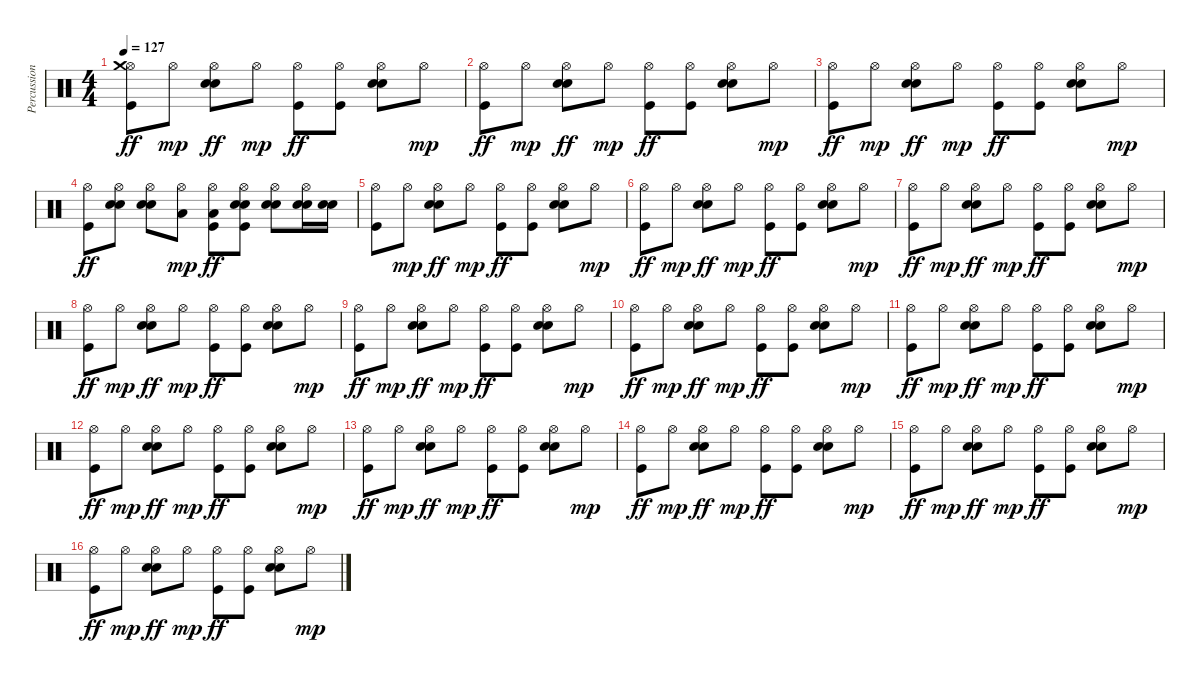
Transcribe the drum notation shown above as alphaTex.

\track ("Percussions" "Percussion") {instrument percussion}
\staff {score}
\articulation defaults
\ts (4 4)
\tempo 127
\clef neutral
\ks c
("Hi-Hat (open)" "Crash medium (hit)" "Kick (hit)").8{dy ff} "Hi-Hat (open)".8{dy mp} ("Hi-Hat (open)" "Snare (hit) 2" "Electric Snare (hit)").8{dy ff} "Hi-Hat (open)".8{dy mp} ("Hi-Hat (open)" "Kick (hit)").8{dy ff} ("Hi-Hat (open)" "Kick (hit)").8 ("Hi-Hat (open)" "Snare (hit) 2" "Electric Snare (hit)").8 "Hi-Hat (open)".8{dy mp} |
("Hi-Hat (open)" "Kick (hit)").8{dy ff} "Hi-Hat (open)".8{dy mp} ("Hi-Hat (open)" "Snare (hit) 2" "Electric Snare (hit)").8{dy ff} "Hi-Hat (open)".8{dy mp} ("Hi-Hat (open)" "Kick (hit)").8{dy ff} ("Hi-Hat (open)" "Kick (hit)").8 ("Hi-Hat (open)" "Snare (hit) 2" "Electric Snare (hit)").8 "Hi-Hat (open)".8{dy mp} |
("Hi-Hat (open)" "Kick (hit)").8{dy ff} "Hi-Hat (open)".8{dy mp} ("Hi-Hat (open)" "Snare (hit) 2" "Electric Snare (hit)").8{dy ff} "Hi-Hat (open)".8{dy mp} ("Hi-Hat (open)" "Kick (hit)").8{dy ff} ("Hi-Hat (open)" "Kick (hit)").8 ("Hi-Hat (open)" "Snare (hit) 2" "Electric Snare (hit)").8 "Hi-Hat (open)".8{dy mp} |
("Hi-Hat (open)" "Kick (hit)").8{dy ff} ("Hi-Hat (open)" "Snare (hit) 2" "Electric Snare (hit)").8 ("Hi-Hat (open)" "Snare (hit) 2" "Electric Snare (hit)").8 ("Hi-Hat (open)" "Low Floor Tom (hit)").8{dy mp} ("Hi-Hat (open)" "Low Floor Tom (hit)" "Kick (hit)").8{dy ff} ("Hi-Hat (open)" "Snare (hit) 2" "Electric Snare (hit)" "Kick (hit)").8 ("Hi-Hat (open)" "Snare (hit) 2" "Electric Snare (hit)").8 ("Hi-Hat (open)" "Snare (hit) 2" "Electric Snare (hit)").16 ("Snare (hit) 2" "Electric Snare (hit)").16 |
("Hi-Hat (open)" "Kick (hit)").8 "Hi-Hat (open)".8{dy mp} ("Hi-Hat (open)" "Snare (hit) 2" "Electric Snare (hit)").8{dy ff} "Hi-Hat (open)".8{dy mp} ("Hi-Hat (open)" "Kick (hit)").8{dy ff} ("Hi-Hat (open)" "Kick (hit)").8 ("Hi-Hat (open)" "Snare (hit) 2" "Electric Snare (hit)").8 "Hi-Hat (open)".8{dy mp} |
("Hi-Hat (open)" "Kick (hit)").8{dy ff} "Hi-Hat (open)".8{dy mp} ("Hi-Hat (open)" "Snare (hit) 2" "Electric Snare (hit)").8{dy ff} "Hi-Hat (open)".8{dy mp} ("Hi-Hat (open)" "Kick (hit)").8{dy ff} ("Hi-Hat (open)" "Kick (hit)").8 ("Hi-Hat (open)" "Snare (hit) 2" "Electric Snare (hit)").8 "Hi-Hat (open)".8{dy mp} |
("Hi-Hat (open)" "Kick (hit)").8{dy ff} "Hi-Hat (open)".8{dy mp} ("Hi-Hat (open)" "Snare (hit) 2" "Electric Snare (hit)").8{dy ff} "Hi-Hat (open)".8{dy mp} ("Hi-Hat (open)" "Kick (hit)").8{dy ff} ("Hi-Hat (open)" "Kick (hit)").8 ("Hi-Hat (open)" "Snare (hit) 2" "Electric Snare (hit)").8 "Hi-Hat (open)".8{dy mp} |
("Hi-Hat (open)" "Kick (hit)").8{dy ff} "Hi-Hat (open)".8{dy mp} ("Hi-Hat (open)" "Snare (hit) 2" "Electric Snare (hit)").8{dy ff} "Hi-Hat (open)".8{dy mp} ("Hi-Hat (open)" "Kick (hit)").8{dy ff} ("Hi-Hat (open)" "Kick (hit)").8 ("Hi-Hat (open)" "Snare (hit) 2" "Electric Snare (hit)").8 "Hi-Hat (open)".8{dy mp} |
("Hi-Hat (open)" "Kick (hit)").8{dy ff} "Hi-Hat (open)".8{dy mp} ("Hi-Hat (open)" "Snare (hit) 2" "Electric Snare (hit)").8{dy ff} "Hi-Hat (open)".8{dy mp} ("Hi-Hat (open)" "Kick (hit)").8{dy ff} ("Hi-Hat (open)" "Kick (hit)").8 ("Hi-Hat (open)" "Snare (hit) 2" "Electric Snare (hit)").8 "Hi-Hat (open)".8{dy mp} |
("Hi-Hat (open)" "Kick (hit)").8{dy ff} "Hi-Hat (open)".8{dy mp} ("Hi-Hat (open)" "Snare (hit) 2" "Electric Snare (hit)").8{dy ff} "Hi-Hat (open)".8{dy mp} ("Hi-Hat (open)" "Kick (hit)").8{dy ff} ("Hi-Hat (open)" "Kick (hit)").8 ("Hi-Hat (open)" "Snare (hit) 2" "Electric Snare (hit)").8 "Hi-Hat (open)".8{dy mp} |
("Hi-Hat (open)" "Kick (hit)").8{dy ff} "Hi-Hat (open)".8{dy mp} ("Hi-Hat (open)" "Snare (hit) 2" "Electric Snare (hit)").8{dy ff} "Hi-Hat (open)".8{dy mp} ("Hi-Hat (open)" "Kick (hit)").8{dy ff} ("Hi-Hat (open)" "Kick (hit)").8 ("Hi-Hat (open)" "Snare (hit) 2" "Electric Snare (hit)").8 "Hi-Hat (open)".8{dy mp} |
("Hi-Hat (open)" "Kick (hit)").8{dy ff} "Hi-Hat (open)".8{dy mp} ("Hi-Hat (open)" "Snare (hit) 2" "Electric Snare (hit)").8{dy ff} "Hi-Hat (open)".8{dy mp} ("Hi-Hat (open)" "Kick (hit)").8{dy ff} ("Hi-Hat (open)" "Kick (hit)").8 ("Hi-Hat (open)" "Snare (hit) 2" "Electric Snare (hit)").8 "Hi-Hat (open)".8{dy mp} |
("Hi-Hat (open)" "Kick (hit)").8{dy ff} "Hi-Hat (open)".8{dy mp} ("Hi-Hat (open)" "Snare (hit) 2" "Electric Snare (hit)").8{dy ff} "Hi-Hat (open)".8{dy mp} ("Hi-Hat (open)" "Kick (hit)").8{dy ff} ("Hi-Hat (open)" "Kick (hit)").8 ("Hi-Hat (open)" "Snare (hit) 2" "Electric Snare (hit)").8 "Hi-Hat (open)".8{dy mp} |
("Hi-Hat (open)" "Kick (hit)").8{dy ff} "Hi-Hat (open)".8{dy mp} ("Hi-Hat (open)" "Snare (hit) 2" "Electric Snare (hit)").8{dy ff} "Hi-Hat (open)".8{dy mp} ("Hi-Hat (open)" "Kick (hit)").8{dy ff} ("Hi-Hat (open)" "Kick (hit)").8 ("Hi-Hat (open)" "Snare (hit) 2" "Electric Snare (hit)").8 "Hi-Hat (open)".8{dy mp} |
("Hi-Hat (open)" "Kick (hit)").8{dy ff} "Hi-Hat (open)".8{dy mp} ("Hi-Hat (open)" "Snare (hit) 2" "Electric Snare (hit)").8{dy ff} "Hi-Hat (open)".8{dy mp} ("Hi-Hat (open)" "Kick (hit)").8{dy ff} ("Hi-Hat (open)" "Kick (hit)").8 ("Hi-Hat (open)" "Snare (hit) 2" "Electric Snare (hit)").8 "Hi-Hat (open)".8{dy mp} |
("Hi-Hat (open)" "Kick (hit)").8{dy ff} "Hi-Hat (open)".8{dy mp} ("Hi-Hat (open)" "Snare (hit) 2" "Electric Snare (hit)").8{dy ff} "Hi-Hat (open)".8{dy mp} ("Hi-Hat (open)" "Kick (hit)").8{dy ff} ("Hi-Hat (open)" "Kick (hit)").8 ("Hi-Hat (open)" "Snare (hit) 2" "Electric Snare (hit)").8 "Hi-Hat (open)".8{dy mp}
